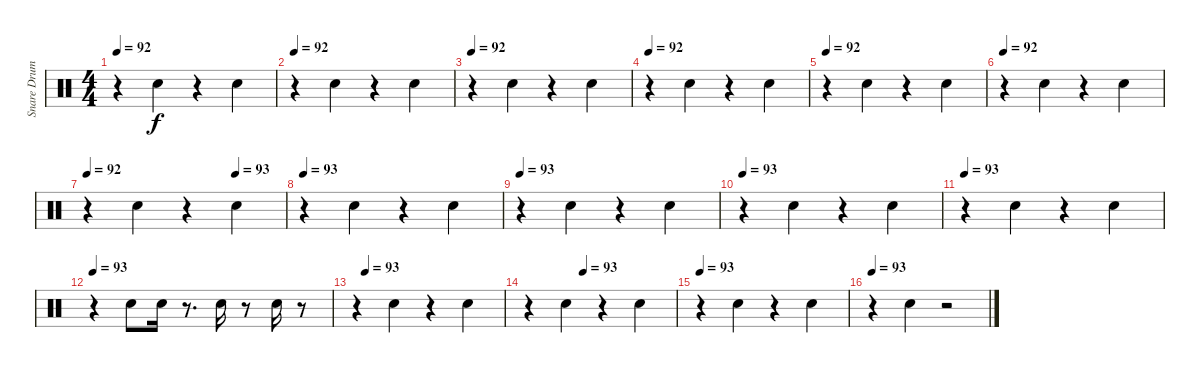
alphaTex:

\track ("Snare Drums" "Snare Drum") {instrument percussion}
\staff {score}
\articulation defaults
\ts (4 4)
\tempo 92
\clef neutral
\ks c
r.4{dy f} "Snare (hit) 2".4 r.4 "Snare (hit) 2".4 |
\tempo 92
r.4 "Snare (hit) 2".4 r.4 "Snare (hit) 2".4 |
\tempo 92
r.4 "Snare (hit) 2".4 r.4 "Snare (hit) 2".4 |
\tempo 92
r.4 "Snare (hit) 2".4 r.4 "Snare (hit) 2".4 |
\tempo 92
r.4 "Snare (hit) 2".4 r.4 "Snare (hit) 2".4 |
\tempo 92
r.4 "Snare (hit) 2".4 r.4 "Snare (hit) 2".4 |
\tempo 92
\tempo (93 0.75)
r.4 "Snare (hit) 2".4 r.4 "Snare (hit) 2".4 |
\tempo 93
r.4 "Snare (hit) 2".4 r.4 "Snare (hit) 2".4 |
\tempo 93
r.4 "Snare (hit) 2".4 r.4 "Snare (hit) 2".4 |
\tempo 93
r.4 "Snare (hit) 2".4 r.4 "Snare (hit) 2".4 |
\tempo 93
r.4 "Snare (hit) 2".4 r.4 "Snare (hit) 2".4 |
\tempo 93
r.4 "Snare (hit) 2".8 "Electric Snare (hit)".16 r.8{d} "Electric Snare (hit)".16 r.8 "Electric Snare (hit)".16 r.8 |
\tempo (93 0.0625)
r.4 "Snare (hit) 2".4 r.4 "Snare (hit) 2".4 |
\tempo (93 0.375)
r.4 "Snare (hit) 2".4 r.4 "Snare (hit) 2".4 |
\tempo 93
r.4 "Snare (hit) 2".4 r.4 "Snare (hit) 2".4 |
\tempo 93
r.4 "Snare (hit) 2".4 r.2
